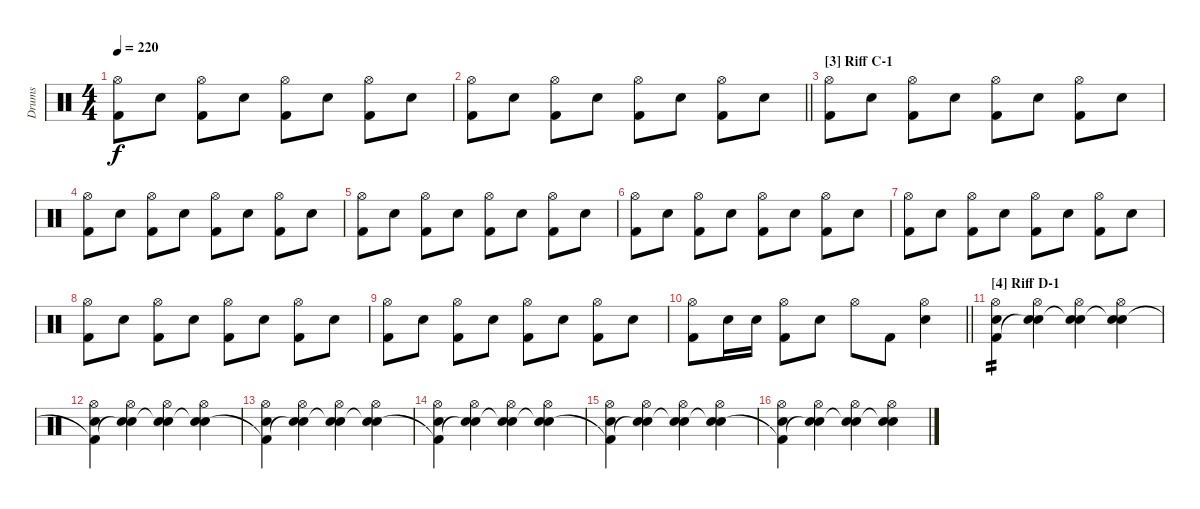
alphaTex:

\track ("Drums" "Drums") {instrument percussion}
\staff {score}
\articulation defaults
\ts (4 4)
\tempo 220
\clef neutral
\ks c
("Hi-Hat (open)" "Kick (hit) 2").8{dy f} "Snare (hit) 2".8 ("Hi-Hat (open)" "Kick (hit) 2").8 "Snare (hit) 2".8 ("Hi-Hat (open)" "Kick (hit) 2").8 "Snare (hit) 2".8 ("Hi-Hat (open)" "Kick (hit) 2").8 "Snare (hit) 2".8 |
\barLineRight lightlight
("Hi-Hat (open)" "Kick (hit) 2").8 "Snare (hit) 2".8 ("Hi-Hat (open)" "Kick (hit) 2").8 "Snare (hit) 2".8 ("Hi-Hat (open)" "Kick (hit) 2").8 "Snare (hit) 2".8 ("Hi-Hat (open)" "Kick (hit) 2").8 "Snare (hit) 2".8 |
\section ("" "[3] Riff C-1")
("Hi-Hat (open)" "Kick (hit) 2").8 "Snare (hit) 2".8 ("Hi-Hat (open)" "Kick (hit) 2").8 "Snare (hit) 2".8 ("Hi-Hat (open)" "Kick (hit) 2").8 "Snare (hit) 2".8 ("Hi-Hat (open)" "Kick (hit) 2").8 "Snare (hit) 2".8 |
("Hi-Hat (open)" "Kick (hit) 2").8 "Snare (hit) 2".8 ("Hi-Hat (open)" "Kick (hit) 2").8 "Snare (hit) 2".8 ("Hi-Hat (open)" "Kick (hit) 2").8 "Snare (hit) 2".8 ("Hi-Hat (open)" "Kick (hit) 2").8 "Snare (hit) 2".8 |
("Hi-Hat (open)" "Kick (hit) 2").8 "Snare (hit) 2".8 ("Hi-Hat (open)" "Kick (hit) 2").8 "Snare (hit) 2".8 ("Hi-Hat (open)" "Kick (hit) 2").8 "Snare (hit) 2".8 ("Hi-Hat (open)" "Kick (hit) 2").8 "Snare (hit) 2".8 |
("Hi-Hat (open)" "Kick (hit) 2").8 "Snare (hit) 2".8 ("Hi-Hat (open)" "Kick (hit) 2").8 "Snare (hit) 2".8 ("Hi-Hat (open)" "Kick (hit) 2").8 "Snare (hit) 2".8 ("Hi-Hat (open)" "Kick (hit) 2").8 "Snare (hit) 2".8 |
("Hi-Hat (open)" "Kick (hit) 2").8 "Snare (hit) 2".8 ("Hi-Hat (open)" "Kick (hit) 2").8 "Snare (hit) 2".8 ("Hi-Hat (open)" "Kick (hit) 2").8 "Snare (hit) 2".8 ("Hi-Hat (open)" "Kick (hit) 2").8 "Snare (hit) 2".8 |
("Hi-Hat (open)" "Kick (hit) 2").8 "Snare (hit) 2".8 ("Hi-Hat (open)" "Kick (hit) 2").8 "Snare (hit) 2".8 ("Hi-Hat (open)" "Kick (hit) 2").8 "Snare (hit) 2".8 ("Hi-Hat (open)" "Kick (hit) 2").8 "Snare (hit) 2".8 |
("Hi-Hat (open)" "Kick (hit) 2").8 "Snare (hit) 2".8 ("Hi-Hat (open)" "Kick (hit) 2").8 "Snare (hit) 2".8 ("Hi-Hat (open)" "Kick (hit) 2").8 "Snare (hit) 2".8 ("Hi-Hat (open)" "Kick (hit) 2").8 "Snare (hit) 2".8 |
\barLineRight lightlight
("Hi-Hat (open)" "Kick (hit) 2").8 "Snare (hit) 2".16 "Snare (hit) 2".16 ("Hi-Hat (open)" "Kick (hit) 2").8 "Snare (hit) 2".8 "Hi-Hat (open)".8 "Kick (hit) 2".8 ("Hi-Hat (open)" "Snare (hit) 2").4 |
\section ("" "[4] Riff D-1")
("Hi-Hat (open)" "Snare (hit) 2" "Kick (hit) 2").4{tp 2} ("Hi-Hat (open)" "Snare (hit) 2" "Snare (hit)"{t}).4 ("Hi-Hat (open)" "Snare (hit) 2" "Snare (hit)"{t}).4 ("Hi-Hat (open)" "Snare (hit) 2" "Snare (hit)"{t}).4 |
("Hi-Hat (open)" "Snare (hit) 2" "Kick (hit) 2"{t}).4 ("Hi-Hat (open)" "Snare (hit) 2" "Snare (hit)"{t}).4 ("Hi-Hat (open)" "Snare (hit) 2" "Snare (hit)"{t}).4 ("Hi-Hat (open)" "Snare (hit) 2" "Snare (hit)"{t}).4 |
("Hi-Hat (open)" "Snare (hit) 2" "Kick (hit) 2"{t}).4 ("Hi-Hat (open)" "Snare (hit) 2" "Snare (hit)"{t}).4 ("Hi-Hat (open)" "Snare (hit) 2" "Snare (hit)"{t}).4 ("Hi-Hat (open)" "Snare (hit) 2" "Snare (hit)"{t}).4 |
("Hi-Hat (open)" "Snare (hit) 2" "Kick (hit) 2"{t}).4 ("Hi-Hat (open)" "Snare (hit) 2" "Snare (hit)"{t}).4 ("Hi-Hat (open)" "Snare (hit) 2" "Snare (hit)"{t}).4 ("Hi-Hat (open)" "Snare (hit) 2" "Snare (hit)"{t}).4 |
("Hi-Hat (open)" "Snare (hit) 2" "Kick (hit) 2"{t}).4 ("Hi-Hat (open)" "Snare (hit) 2" "Snare (hit)"{t}).4 ("Hi-Hat (open)" "Snare (hit) 2" "Snare (hit)"{t}).4 ("Hi-Hat (open)" "Snare (hit) 2" "Snare (hit)"{t}).4 |
("Hi-Hat (open)" "Snare (hit) 2" "Kick (hit) 2"{t}).4 ("Hi-Hat (open)" "Snare (hit) 2" "Snare (hit)"{t}).4 ("Hi-Hat (open)" "Snare (hit) 2" "Snare (hit)"{t}).4 ("Hi-Hat (open)" "Snare (hit) 2" "Snare (hit)"{t}).4
